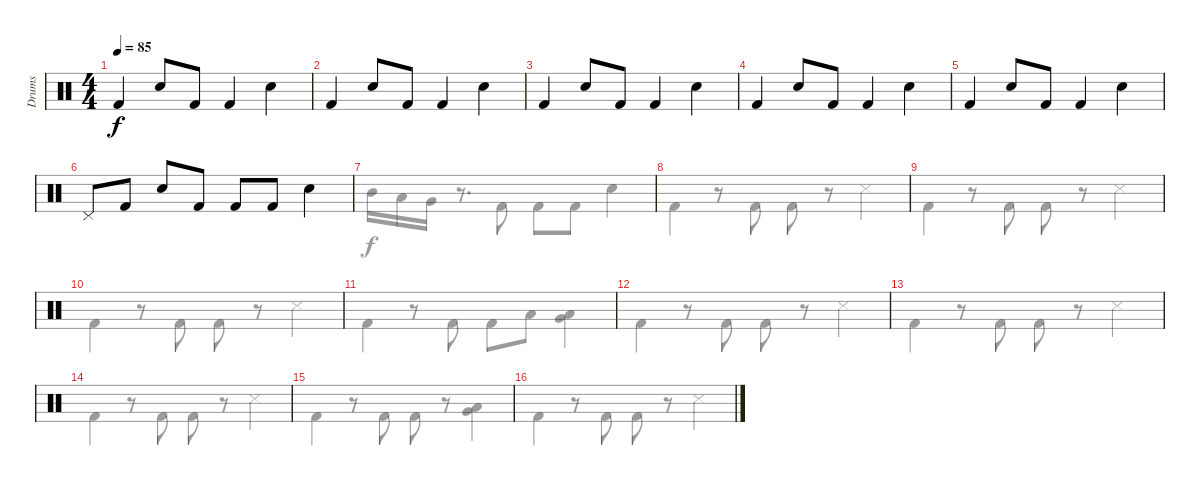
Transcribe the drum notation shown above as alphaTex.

\track ("Drums" "Drums") {instrument percussion}
\staff {score}
\articulation defaults
\voice
\ts (4 4)
\tempo 85
\clef neutral
\ks c "Kick (hit) 2".4{dy f} "Snare (hit) 2".8 "Kick (hit) 2".8 "Kick (hit) 2".4 "Snare (hit) 2".4
|
"Kick (hit) 2".4 "Snare (hit) 2".8 "Kick (hit) 2".8 "Kick (hit) 2".4 "Snare (hit) 2".4 |
"Kick (hit) 2".4 "Snare (hit) 2".8 "Kick (hit) 2".8 "Kick (hit) 2".4 "Snare (hit) 2".4 |
"Kick (hit) 2".4 "Snare (hit) 2".8 "Kick (hit) 2".8 "Kick (hit) 2".4 "Snare (hit) 2".4 |
"Kick (hit) 2".4 "Snare (hit) 2".8 "Kick (hit) 2".8 "Kick (hit) 2".4 "Snare (hit) 2".4 |
"Pedal Hi-Hat (hit)".8 "Kick (hit) 2".8 "Snare (hit) 2".8 "Kick (hit) 2".8 "Kick (hit) 2".8 "Kick (hit) 2".8 "Snare (hit) 2".4 |
|
|
|
|
|
|
|
|
|
\voice
\clef neutral
\ottava regular
\simile none
\ks c
|
|
|
|
|
|
"Mid Tom (hit)".16 "Low Tom (hit)".16 "Very Low Tom (hit)".16 r.8{d} "Kick (hit) 2".8 "Kick (hit) 2".8 "Kick (hit) 2".8 "Snare (hit) 2".4 |
"Kick (hit) 2".4 r.8 "Kick (hit) 2".8 "Kick (hit) 2".8 r.8 "Snare (side stick) 3".4 |
"Kick (hit) 2".4 r.8 "Kick (hit) 2".8 "Kick (hit) 2".8 r.8 "Snare (side stick) 3".4 |
"Kick (hit) 2".4 r.8 "Kick (hit) 2".8 "Kick (hit) 2".8 r.8 "Snare (side stick) 3".4 |
"Kick (hit) 2".4 r.8 "Kick (hit) 2".8 "Kick (hit) 2".8 "Low Tom (hit)".8 ("Very Low Tom (hit)" "Low Floor Tom (hit)").4 |
"Kick (hit) 2".4 r.8 "Kick (hit) 2".8 "Kick (hit) 2".8 r.8 "Snare (side stick) 3".4 |
"Kick (hit) 2".4 r.8 "Kick (hit) 2".8 "Kick (hit) 2".8 r.8 "Snare (side stick) 3".4 |
"Kick (hit) 2".4 r.8 "Kick (hit) 2".8 "Kick (hit) 2".8 r.8 "Snare (side stick) 3".4 |
"Kick (hit) 2".4 r.8 "Kick (hit) 2".8 "Kick (hit) 2".8 r.8 ("Very Low Tom (hit)" "Low Floor Tom (hit)").4 |
"Kick (hit) 2".4 r.8 "Kick (hit) 2".8 "Kick (hit) 2".8 r.8 "Snare (side stick) 3".4
